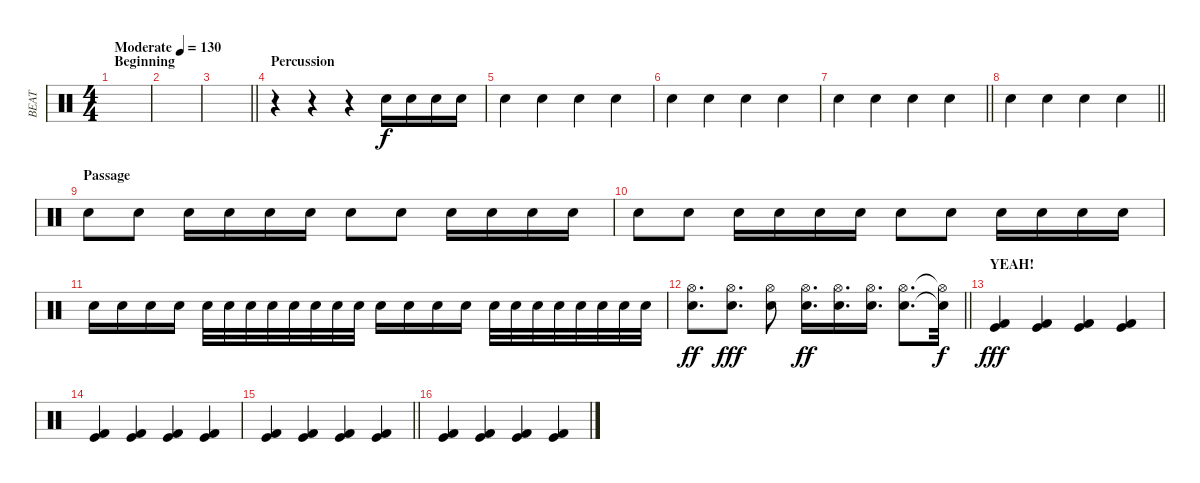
\track ("BEAT" "BEAT") {instrument percussion}
\staff {score}
\articulation defaults
\ts (4 4)
\section ("" "Beginning")
\tempo (130 "Moderate")
\clef neutral
\ks c
|
|
\barLineRight lightlight
|
\section ("" "Percussion")
r.4 r.4 r.4 "Electric Snare (hit)".16{volume 7} "Electric Snare (hit)".16{volume 10} "Electric Snare (hit)".16{volume 12} "Electric Snare (hit)".16{volume 16} |
"Electric Snare (hit)".4 "Electric Snare (hit)".4 "Electric Snare (hit)".4 "Electric Snare (hit)".4 |
"Electric Snare (hit)".4 "Electric Snare (hit)".4 "Electric Snare (hit)".4 "Electric Snare (hit)".4 |
\barLineRight lightlight "Electric Snare (hit)".4 "Electric Snare (hit)".4 "Electric Snare (hit)".4 "Electric Snare (hit)".4
|
\barLineRight lightlight "Electric Snare (hit)".4 "Electric Snare (hit)".4 "Electric Snare (hit)".4 "Electric Snare (hit)".4
|
\section ("" "Passage")
"Snare (hit) 2".8 "Snare (hit) 2".8 "Electric Snare (hit)".16 "Electric Snare (hit)".16 "Electric Snare (hit)".16 "Electric Snare (hit)".16 "Snare (hit) 2".8 "Snare (hit) 2".8 "Electric Snare (hit)".16 "Electric Snare (hit)".16 "Electric Snare (hit)".16 "Electric Snare (hit)".16 |
"Snare (hit) 2".8 "Snare (hit) 2".8 "Electric Snare (hit)".16 "Electric Snare (hit)".16 "Electric Snare (hit)".16 "Electric Snare (hit)".16 "Snare (hit) 2".8 "Snare (hit) 2".8 "Electric Snare (hit)".16 "Electric Snare (hit)".16 "Electric Snare (hit)".16 "Electric Snare (hit)".16 |
"Snare (hit) 2".16 "Snare (hit) 2".16 "Snare (hit) 2".16 "Snare (hit) 2".16 "Electric Snare (hit)".32 "Electric Snare (hit)".32 "Electric Snare (hit)".32 "Electric Snare (hit)".32 "Electric Snare (hit)".32 "Electric Snare (hit)".32 "Electric Snare (hit)".32 "Electric Snare (hit)".32 "Snare (hit) 2".16 "Snare (hit) 2".16 "Snare (hit) 2".16 "Snare (hit) 2".16 "Electric Snare (hit)".32 "Electric Snare (hit)".32 "Electric Snare (hit)".32 "Electric Snare (hit)".32 "Electric Snare (hit)".32 "Electric Snare (hit)".32 "Electric Snare (hit)".32 "Electric Snare (hit)".32 |
\barLineRight lightlight
("Hi-Hat (open)" "Snare (hit) 2").8{d dy ff} ("Hi-Hat (open)" "Electric Snare (hit)").8{d dy fff} ("Hi-Hat (open)" "Electric Snare (hit)").8 ("Snare (hit) 2" "Hi-Hat (open)").16{d dy ff} ("Snare (hit) 2" "Hi-Hat (open)").16{d} ("Snare (hit) 2" "Hi-Hat (open)").16{d} ("Snare (hit) 2" "Hi-Hat (open)").8{d} ("Snare (hit) 2"{t} "Hi-Hat (open)"{t}).32{dy f} |
\section ("" "YEAH!")
("Kick (hit) 2" "Kick (hit)").4{dy fff} ("Kick (hit) 2" "Kick (hit)").4 ("Kick (hit) 2" "Kick (hit)").4 ("Kick (hit) 2" "Kick (hit)").4 |
("Kick (hit) 2" "Kick (hit)").4 ("Kick (hit) 2" "Kick (hit)").4 ("Kick (hit) 2" "Kick (hit)").4 ("Kick (hit) 2" "Kick (hit)").4 |
\barLineRight lightlight
("Kick (hit) 2" "Kick (hit)").4 ("Kick (hit) 2" "Kick (hit)").4 ("Kick (hit) 2" "Kick (hit)").4 ("Kick (hit) 2" "Kick (hit)").4 |
("Kick (hit) 2" "Kick (hit)").4 ("Kick (hit) 2" "Kick (hit)").4 ("Kick (hit) 2" "Kick (hit)").4 ("Kick (hit) 2" "Kick (hit)").4
